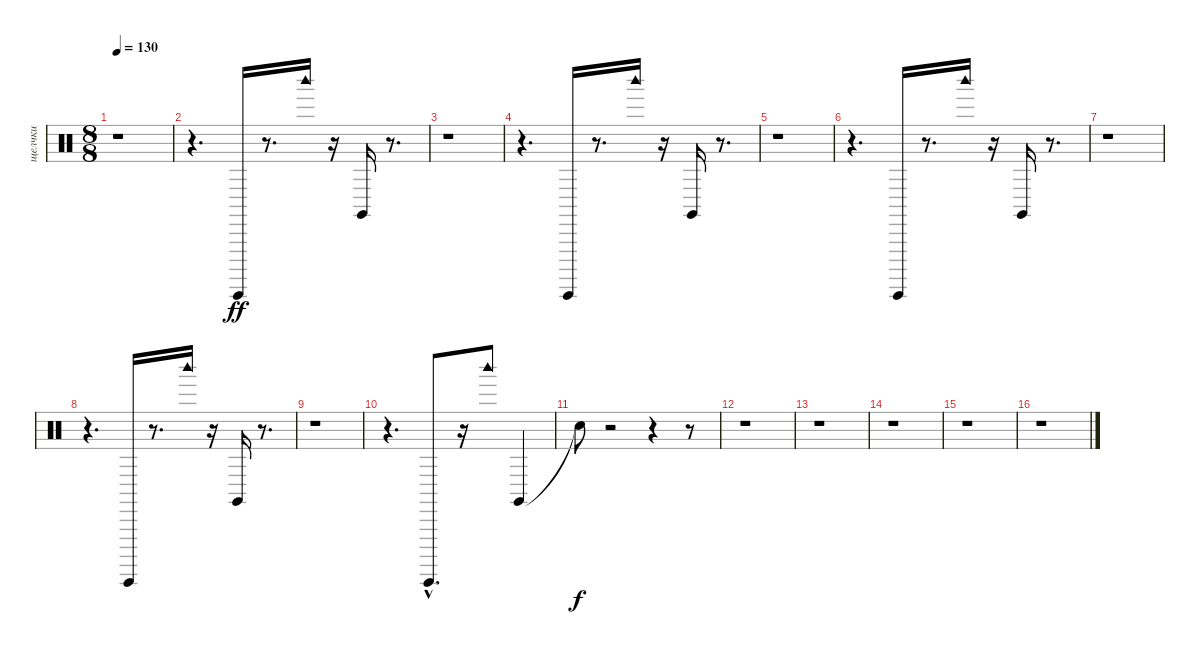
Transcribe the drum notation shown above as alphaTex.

\track ("щелчки" "щелчки") {instrument percussion}
\staff {score}
\articulation defaults
\ts (8 8)
\tempo 130
\clef neutral
\ks c
r.1{dy ff} |
r.4{d} "Guiro (hit)".16 r.8{d} "Woodblock high (hit)".16 r.16 "Claves (hit)".16 r.8{d} |
r.1 |
r.4{d} "Guiro (hit)".16 r.8{d} "Woodblock high (hit)".16 r.16 "Claves (hit)".16 r.8{d} |
r.1 |
r.4{d} "Guiro (hit)".16 r.8{d} "Woodblock high (hit)".16 r.16 "Claves (hit)".16 r.8{d} |
r.1 |
r.4{d} "Guiro (hit)".16 r.8{d} "Woodblock high (hit)".16 r.16 "Claves (hit)".16 r.8{d} |
r.1 |
r.4{d} "Guiro (hit)"{hac}.8{d} r.16 "Woodblock high (hit)".8 "Claves (hit)".4 |
"Snare (hit)"{t}.8{dy f} r.2 r.4 r.8 |
r.1 |
r.1 |
r.1 |
r.1 |
r.1
